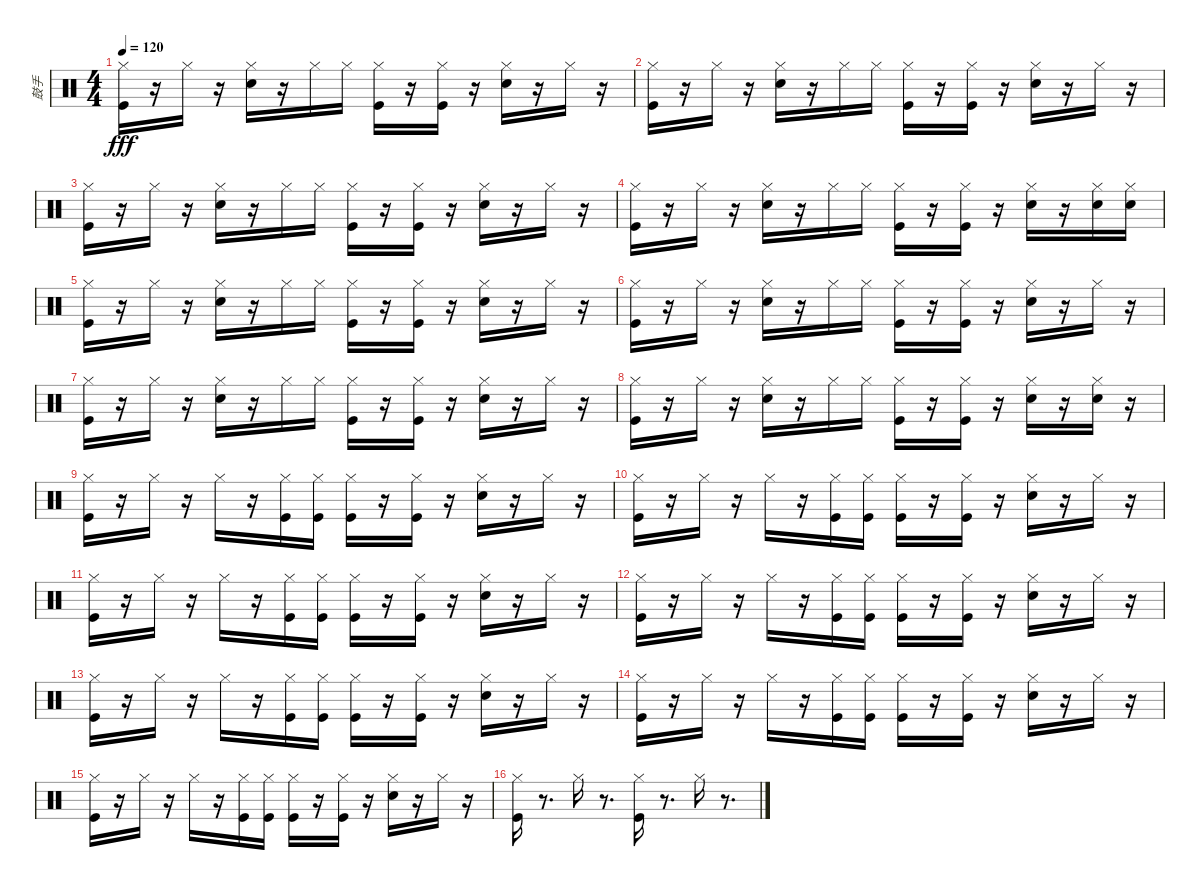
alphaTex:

\track ("鼓手" "鼓手") {instrument percussion}
\staff {score}
\articulation defaults
\ts (4 4)
\tempo 120
\clef neutral
\ks c
("Kick (hit)" "Hi-Hat (closed)").16{dy fff} r.16 "Hi-Hat (closed)".16 r.16 ("Snare (hit) 2" "Hi-Hat (closed)").16 r.16 "Hi-Hat (closed)".16 "Hi-Hat (closed)".16 ("Kick (hit)" "Hi-Hat (closed)").16 r.16 ("Kick (hit)" "Hi-Hat (closed)").16 r.16 ("Snare (hit) 2" "Hi-Hat (closed)").16 r.16 "Hi-Hat (closed)".16 r.16 |
("Kick (hit)" "Hi-Hat (closed)").16 r.16 "Hi-Hat (closed)".16 r.16 ("Snare (hit) 2" "Hi-Hat (closed)").16 r.16 "Hi-Hat (closed)".16 "Hi-Hat (closed)".16 ("Kick (hit)" "Hi-Hat (closed)").16 r.16 ("Kick (hit)" "Hi-Hat (closed)").16 r.16 ("Snare (hit) 2" "Hi-Hat (closed)").16 r.16 "Hi-Hat (closed)".16 r.16 |
("Kick (hit)" "Hi-Hat (closed)").16 r.16 "Hi-Hat (closed)".16 r.16 ("Snare (hit) 2" "Hi-Hat (closed)").16 r.16 "Hi-Hat (closed)".16 "Hi-Hat (closed)".16 ("Kick (hit)" "Hi-Hat (closed)").16 r.16 ("Kick (hit)" "Hi-Hat (closed)").16 r.16 ("Snare (hit) 2" "Hi-Hat (closed)").16 r.16 "Hi-Hat (closed)".16 r.16 |
("Kick (hit)" "Hi-Hat (closed)").16 r.16 "Hi-Hat (closed)".16 r.16 ("Snare (hit) 2" "Hi-Hat (closed)").16 r.16 "Hi-Hat (closed)".16 "Hi-Hat (closed)".16 ("Kick (hit)" "Hi-Hat (closed)").16 r.16 ("Kick (hit)" "Hi-Hat (closed)").16 r.16 ("Snare (hit) 2" "Hi-Hat (closed)").16 r.16 ("Snare (hit) 2" "Hi-Hat (closed)").16 ("Snare (hit) 2" "Hi-Hat (closed)").16 |
("Kick (hit)" "Hi-Hat (closed)").16 r.16 "Hi-Hat (closed)".16 r.16 ("Snare (hit) 2" "Hi-Hat (closed)").16 r.16 "Hi-Hat (closed)".16 "Hi-Hat (closed)".16 ("Kick (hit)" "Hi-Hat (closed)").16 r.16 ("Kick (hit)" "Hi-Hat (closed)").16 r.16 ("Snare (hit) 2" "Hi-Hat (closed)").16 r.16 "Hi-Hat (closed)".16 r.16 |
("Kick (hit)" "Hi-Hat (closed)").16 r.16 "Hi-Hat (closed)".16 r.16 ("Snare (hit) 2" "Hi-Hat (closed)").16 r.16 "Hi-Hat (closed)".16 "Hi-Hat (closed)".16 ("Kick (hit)" "Hi-Hat (closed)").16 r.16 ("Kick (hit)" "Hi-Hat (closed)").16 r.16 ("Snare (hit) 2" "Hi-Hat (closed)").16 r.16 "Hi-Hat (closed)".16 r.16 |
("Kick (hit)" "Hi-Hat (closed)").16 r.16 "Hi-Hat (closed)".16 r.16 ("Snare (hit) 2" "Hi-Hat (closed)").16 r.16 "Hi-Hat (closed)".16 "Hi-Hat (closed)".16 ("Kick (hit)" "Hi-Hat (closed)").16 r.16 ("Kick (hit)" "Hi-Hat (closed)").16 r.16 ("Snare (hit) 2" "Hi-Hat (closed)").16 r.16 "Hi-Hat (closed)".16 r.16 |
("Kick (hit)" "Hi-Hat (closed)").16 r.16 "Hi-Hat (closed)".16 r.16 ("Snare (hit) 2" "Hi-Hat (closed)").16 r.16 "Hi-Hat (closed)".16 "Hi-Hat (closed)".16 ("Kick (hit)" "Hi-Hat (closed)").16 r.16 ("Kick (hit)" "Hi-Hat (closed)").16 r.16 ("Snare (hit) 2" "Hi-Hat (closed)").16 r.16 ("Snare (hit) 2" "Hi-Hat (closed)").16 r.16 |
("Kick (hit)" "Hi-Hat (closed)").16 r.16 "Hi-Hat (closed)".16 r.16 "Hi-Hat (closed)".16 r.16 ("Kick (hit)" "Hi-Hat (closed)").16 ("Kick (hit)" "Hi-Hat (closed)").16 ("Kick (hit)" "Hi-Hat (closed)").16 r.16 ("Kick (hit)" "Hi-Hat (closed)").16 r.16 ("Snare (hit) 2" "Hi-Hat (closed)").16 r.16 "Hi-Hat (closed)".16 r.16 |
("Kick (hit)" "Hi-Hat (closed)").16 r.16 "Hi-Hat (closed)".16 r.16 "Hi-Hat (closed)".16 r.16 ("Kick (hit)" "Hi-Hat (closed)").16 ("Kick (hit)" "Hi-Hat (closed)").16 ("Kick (hit)" "Hi-Hat (closed)").16 r.16 ("Kick (hit)" "Hi-Hat (closed)").16 r.16 ("Snare (hit) 2" "Hi-Hat (closed)").16 r.16 "Hi-Hat (closed)".16 r.16 |
("Kick (hit)" "Hi-Hat (closed)").16 r.16 "Hi-Hat (closed)".16 r.16 "Hi-Hat (closed)".16 r.16 ("Kick (hit)" "Hi-Hat (closed)").16 ("Kick (hit)" "Hi-Hat (closed)").16 ("Kick (hit)" "Hi-Hat (closed)").16 r.16 ("Kick (hit)" "Hi-Hat (closed)").16 r.16 ("Snare (hit) 2" "Hi-Hat (closed)").16 r.16 "Hi-Hat (closed)".16 r.16 |
("Kick (hit)" "Hi-Hat (closed)").16 r.16 "Hi-Hat (closed)".16 r.16 "Hi-Hat (closed)".16 r.16 ("Kick (hit)" "Hi-Hat (closed)").16 ("Kick (hit)" "Hi-Hat (closed)").16 ("Kick (hit)" "Hi-Hat (closed)").16 r.16 ("Kick (hit)" "Hi-Hat (closed)").16 r.16 ("Snare (hit) 2" "Hi-Hat (closed)").16 r.16 "Hi-Hat (closed)".16 r.16 |
("Kick (hit)" "Hi-Hat (closed)").16 r.16 "Hi-Hat (closed)".16 r.16 "Hi-Hat (closed)".16 r.16 ("Kick (hit)" "Hi-Hat (closed)").16 ("Kick (hit)" "Hi-Hat (closed)").16 ("Kick (hit)" "Hi-Hat (closed)").16 r.16 ("Kick (hit)" "Hi-Hat (closed)").16 r.16 ("Snare (hit) 2" "Hi-Hat (closed)").16 r.16 "Hi-Hat (closed)".16 r.16 |
("Kick (hit)" "Hi-Hat (closed)").16 r.16 "Hi-Hat (closed)".16 r.16 "Hi-Hat (closed)".16 r.16 ("Kick (hit)" "Hi-Hat (closed)").16 ("Kick (hit)" "Hi-Hat (closed)").16 ("Kick (hit)" "Hi-Hat (closed)").16 r.16 ("Kick (hit)" "Hi-Hat (closed)").16 r.16 ("Snare (hit) 2" "Hi-Hat (closed)").16 r.16 "Hi-Hat (closed)".16 r.16 |
("Kick (hit)" "Hi-Hat (closed)").16 r.16 "Hi-Hat (closed)".16 r.16 "Hi-Hat (closed)".16 r.16 ("Kick (hit)" "Hi-Hat (closed)").16 ("Kick (hit)" "Hi-Hat (closed)").16 ("Kick (hit)" "Hi-Hat (closed)").16 r.16 ("Kick (hit)" "Hi-Hat (closed)").16 r.16 ("Snare (hit) 2" "Hi-Hat (closed)").16 r.16 "Hi-Hat (closed)".16 r.16 |
("Kick (hit)" "Hi-Hat (closed)").16 r.8{d} "Hi-Hat (closed)".16 r.8{d} ("Kick (hit)" "Hi-Hat (closed)").16 r.8{d} "Hi-Hat (closed)".16 r.8{d}
